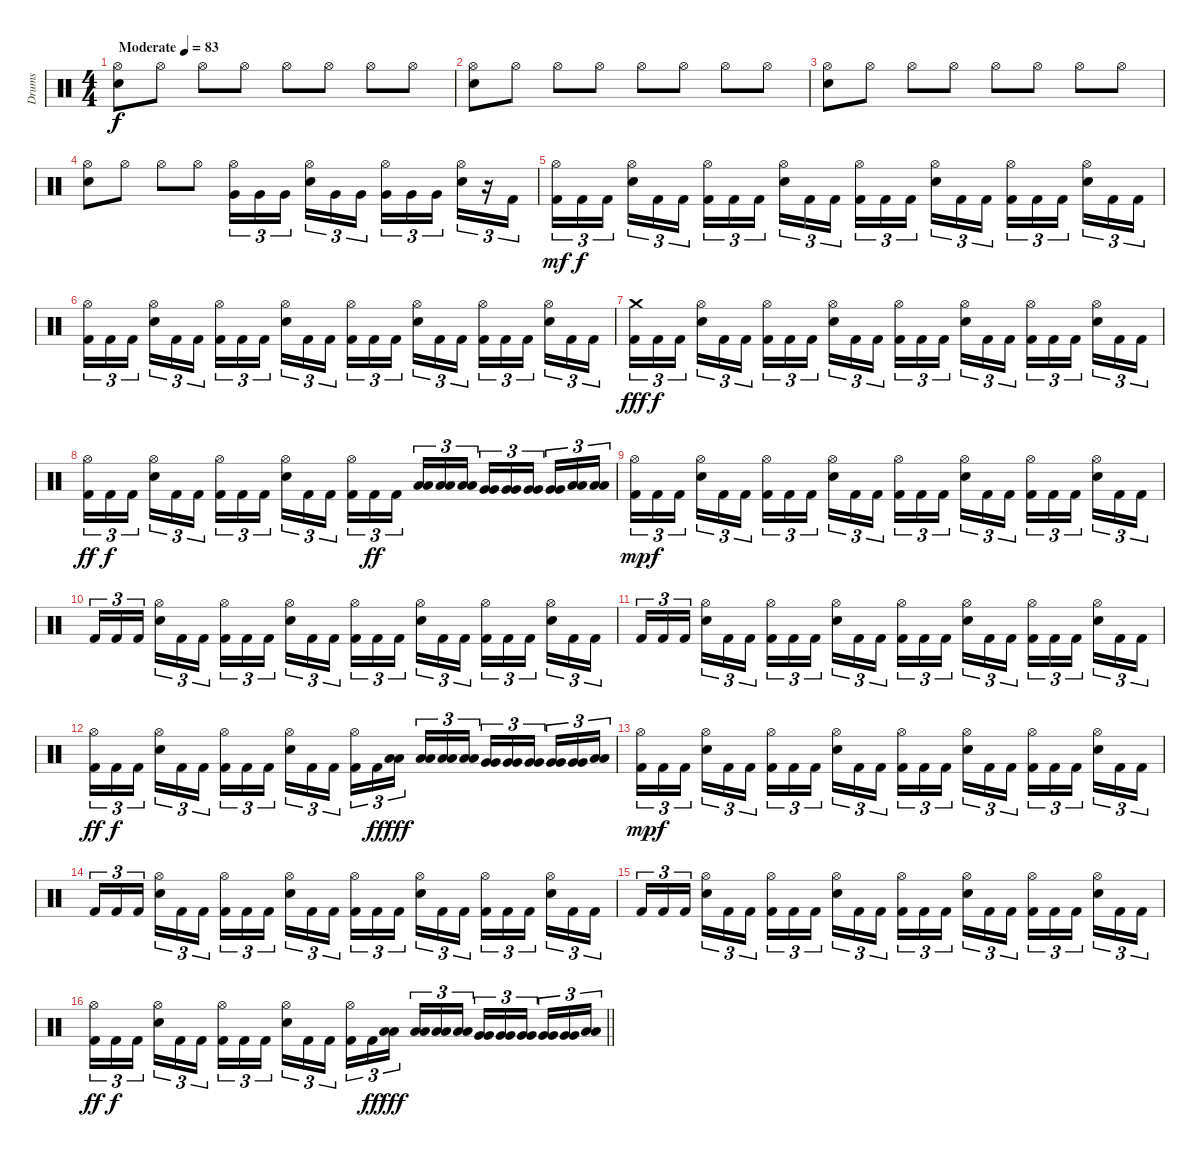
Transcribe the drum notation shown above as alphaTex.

\track ("Drums " "Drums ") {instrument percussion}
\staff {score}
\articulation defaults
\ts (4 4)
\tempo (83 "Moderate")
\clef neutral
\ks c
("Hi-Hat (open)" "Snare (hit) 2").8{dy f} "Hi-Hat (open)".8 "Hi-Hat (open)".8 "Hi-Hat (open)".8 "Hi-Hat (open)".8 "Hi-Hat (open)".8 "Hi-Hat (open)".8 "Hi-Hat (open)".8 |
("Hi-Hat (open)" "Snare (hit) 2").8 "Hi-Hat (open)".8 "Hi-Hat (open)".8 "Hi-Hat (open)".8 "Hi-Hat (open)".8 "Hi-Hat (open)".8 "Hi-Hat (open)".8 "Hi-Hat (open)".8 |
("Hi-Hat (open)" "Snare (hit) 2").8 "Hi-Hat (open)".8 "Hi-Hat (open)".8 "Hi-Hat (open)".8 "Hi-Hat (open)".8 "Hi-Hat (open)".8 "Hi-Hat (open)".8 "Hi-Hat (open)".8 |
("Hi-Hat (open)" "Snare (hit) 2").8 "Hi-Hat (open)".8 "Hi-Hat (open)".8 "Hi-Hat (open)".8 ("Hi-Hat (open)" "Very Low Tom (hit)").16{tu (3 2)} "Very Low Tom (hit)".16{tu (3 2)} "Very Low Tom (hit)".16{tu (3 2) beam splitsecondary} ("Hi-Hat (open)" "Snare (hit) 2").16{tu (3 2)} "Very Low Tom (hit)".16{tu (3 2)} "Very Low Tom (hit)".16{tu (3 2)} ("Hi-Hat (open)" "Very Low Tom (hit)").16{tu (3 2)} "Very Low Tom (hit)".16{tu (3 2)} "Very Low Tom (hit)".16{tu (3 2) beam splitsecondary} ("Hi-Hat (open)" "Snare (hit) 2").16{tu (3 2)} r.16{tu (3 2)} "Kick (hit) 2".16{tu (3 2)} |
("Hi-Hat (open)" "Kick (hit) 2").16{tu (3 2) dy mf} "Kick (hit) 2".16{tu (3 2) dy f} "Kick (hit) 2".16{tu (3 2) beam splitsecondary} ("Hi-Hat (open)" "Snare (hit) 2").16{tu (3 2)} "Kick (hit) 2".16{tu (3 2)} "Kick (hit) 2".16{tu (3 2)} ("Hi-Hat (open)" "Kick (hit) 2").16{tu (3 2)} "Kick (hit) 2".16{tu (3 2)} "Kick (hit) 2".16{tu (3 2) beam splitsecondary} ("Hi-Hat (open)" "Snare (hit) 2").16{tu (3 2)} "Kick (hit) 2".16{tu (3 2)} "Kick (hit) 2".16{tu (3 2)} ("Hi-Hat (open)" "Kick (hit) 2").16{tu (3 2)} "Kick (hit) 2".16{tu (3 2)} "Kick (hit) 2".16{tu (3 2) beam splitsecondary} ("Hi-Hat (open)" "Snare (hit) 2").16{tu (3 2)} "Kick (hit) 2".16{tu (3 2)} "Kick (hit) 2".16{tu (3 2)} ("Hi-Hat (open)" "Kick (hit) 2").16{tu (3 2)} "Kick (hit) 2".16{tu (3 2)} "Kick (hit) 2".16{tu (3 2) beam splitsecondary} ("Hi-Hat (open)" "Snare (hit) 2").16{tu (3 2)} "Kick (hit) 2".16{tu (3 2)} "Kick (hit) 2".16{tu (3 2)} |
("Hi-Hat (open)" "Kick (hit) 2").16{tu (3 2)} "Kick (hit) 2".16{tu (3 2)} "Kick (hit) 2".16{tu (3 2) beam splitsecondary} ("Hi-Hat (open)" "Snare (hit) 2").16{tu (3 2)} "Kick (hit) 2".16{tu (3 2)} "Kick (hit) 2".16{tu (3 2)} ("Hi-Hat (open)" "Kick (hit) 2").16{tu (3 2)} "Kick (hit) 2".16{tu (3 2)} "Kick (hit) 2".16{tu (3 2) beam splitsecondary} ("Hi-Hat (open)" "Snare (hit) 2").16{tu (3 2)} "Kick (hit) 2".16{tu (3 2)} "Kick (hit) 2".16{tu (3 2)} ("Hi-Hat (open)" "Kick (hit) 2").16{tu (3 2)} "Kick (hit) 2".16{tu (3 2)} "Kick (hit) 2".16{tu (3 2) beam splitsecondary} ("Hi-Hat (open)" "Snare (hit) 2").16{tu (3 2)} "Kick (hit) 2".16{tu (3 2)} "Kick (hit) 2".16{tu (3 2)} ("Hi-Hat (open)" "Kick (hit) 2").16{tu (3 2)} "Kick (hit) 2".16{tu (3 2)} "Kick (hit) 2".16{tu (3 2) beam splitsecondary} ("Hi-Hat (open)" "Snare (hit) 2").16{tu (3 2)} "Kick (hit) 2".16{tu (3 2)} "Kick (hit) 2".16{tu (3 2)} |
("Crash medium (hit)" "Kick (hit) 2").16{tu (3 2) dy fff} "Kick (hit) 2".16{tu (3 2) dy f} "Kick (hit) 2".16{tu (3 2) beam splitsecondary} ("Hi-Hat (open)" "Snare (hit) 2").16{tu (3 2)} "Kick (hit) 2".16{tu (3 2)} "Kick (hit) 2".16{tu (3 2)} ("Hi-Hat (open)" "Kick (hit) 2").16{tu (3 2)} "Kick (hit) 2".16{tu (3 2)} "Kick (hit) 2".16{tu (3 2) beam splitsecondary} ("Hi-Hat (open)" "Snare (hit) 2").16{tu (3 2)} "Kick (hit) 2".16{tu (3 2)} "Kick (hit) 2".16{tu (3 2)} ("Hi-Hat (open)" "Kick (hit) 2").16{tu (3 2)} "Kick (hit) 2".16{tu (3 2)} "Kick (hit) 2".16{tu (3 2) beam splitsecondary} ("Hi-Hat (open)" "Snare (hit) 2").16{tu (3 2)} "Kick (hit) 2".16{tu (3 2)} "Kick (hit) 2".16{tu (3 2)} ("Hi-Hat (open)" "Kick (hit) 2").16{tu (3 2)} "Kick (hit) 2".16{tu (3 2)} "Kick (hit) 2".16{tu (3 2) beam splitsecondary} ("Hi-Hat (open)" "Snare (hit) 2").16{tu (3 2)} "Kick (hit) 2".16{tu (3 2)} "Kick (hit) 2".16{tu (3 2)} |
("Hi-Hat (open)" "Kick (hit) 2").16{tu (3 2) dy ff} "Kick (hit) 2".16{tu (3 2) dy f} "Kick (hit) 2".16{tu (3 2) beam splitsecondary} ("Hi-Hat (open)" "Snare (hit) 2").16{tu (3 2)} "Kick (hit) 2".16{tu (3 2)} "Kick (hit) 2".16{tu (3 2)} ("Hi-Hat (open)" "Kick (hit) 2").16{tu (3 2)} "Kick (hit) 2".16{tu (3 2)} "Kick (hit) 2".16{tu (3 2) beam splitsecondary} ("Hi-Hat (open)" "Snare (hit) 2").16{tu (3 2)} "Kick (hit) 2".16{tu (3 2)} "Kick (hit) 2".16{tu (3 2)} ("Hi-Hat (open)" "Kick (hit) 2").16{tu (3 2)} "Kick (hit) 2".16{tu (3 2) dy ff} "Kick (hit) 2".16{tu (3 2) beam splitsecondary} ("Low Tom (hit)" "Low Tom (hit)").16{tu (3 2)} ("Low Tom (hit)" "Low Tom (hit)").16{tu (3 2)} ("Low Tom (hit)" "Low Tom (hit)").16{tu (3 2)} ("Very Low Tom (hit)" "Very Low Tom (hit)").16{tu (3 2)} ("Very Low Tom (hit)" "Very Low Tom (hit)").16{tu (3 2)} ("Very Low Tom (hit)" "Very Low Tom (hit)").16{tu (3 2) beam splitsecondary} ("Very Low Tom (hit)" "Very Low Tom (hit)").16{tu (3 2)} ("Low Floor Tom (hit)" "Low Floor Tom (hit)").16{tu (3 2)} ("Low Floor Tom (hit)" "Low Floor Tom (hit)").16{tu (3 2)} |
("Hi-Hat (open)" "Kick (hit) 2").16{tu (3 2) dy mp} "Kick (hit) 2".16{tu (3 2) dy f} "Kick (hit) 2".16{tu (3 2) beam splitsecondary} ("Hi-Hat (open)" "Snare (hit) 2").16{tu (3 2)} "Kick (hit) 2".16{tu (3 2)} "Kick (hit) 2".16{tu (3 2)} ("Hi-Hat (open)" "Kick (hit) 2").16{tu (3 2)} "Kick (hit) 2".16{tu (3 2)} "Kick (hit) 2".16{tu (3 2) beam splitsecondary} ("Hi-Hat (open)" "Snare (hit) 2").16{tu (3 2)} "Kick (hit) 2".16{tu (3 2)} "Kick (hit) 2".16{tu (3 2)} ("Hi-Hat (open)" "Kick (hit) 2").16{tu (3 2)} "Kick (hit) 2".16{tu (3 2)} "Kick (hit) 2".16{tu (3 2) beam splitsecondary} ("Hi-Hat (open)" "Snare (hit) 2").16{tu (3 2)} "Kick (hit) 2".16{tu (3 2)} "Kick (hit) 2".16{tu (3 2)} ("Hi-Hat (open)" "Kick (hit) 2").16{tu (3 2)} "Kick (hit) 2".16{tu (3 2)} "Kick (hit) 2".16{tu (3 2) beam splitsecondary} ("Hi-Hat (open)" "Snare (hit) 2").16{tu (3 2)} "Kick (hit) 2".16{tu (3 2)} "Kick (hit) 2".16{tu (3 2)} |
"Kick (hit) 2".16{tu (3 2)} "Kick (hit) 2".16{tu (3 2)} "Kick (hit) 2".16{tu (3 2) beam splitsecondary} ("Hi-Hat (open)" "Snare (hit) 2").16{tu (3 2)} "Kick (hit) 2".16{tu (3 2)} "Kick (hit) 2".16{tu (3 2)} ("Hi-Hat (open)" "Kick (hit) 2").16{tu (3 2)} "Kick (hit) 2".16{tu (3 2)} "Kick (hit) 2".16{tu (3 2) beam splitsecondary} ("Hi-Hat (open)" "Snare (hit) 2").16{tu (3 2)} "Kick (hit) 2".16{tu (3 2)} "Kick (hit) 2".16{tu (3 2)} ("Hi-Hat (open)" "Kick (hit) 2").16{tu (3 2)} "Kick (hit) 2".16{tu (3 2)} "Kick (hit) 2".16{tu (3 2) beam splitsecondary} ("Hi-Hat (open)" "Snare (hit) 2").16{tu (3 2)} "Kick (hit) 2".16{tu (3 2)} "Kick (hit) 2".16{tu (3 2)} ("Hi-Hat (open)" "Kick (hit) 2").16{tu (3 2)} "Kick (hit) 2".16{tu (3 2)} "Kick (hit) 2".16{tu (3 2) beam splitsecondary} ("Hi-Hat (open)" "Snare (hit) 2").16{tu (3 2)} "Kick (hit) 2".16{tu (3 2)} "Kick (hit) 2".16{tu (3 2)} |
"Kick (hit) 2".16{tu (3 2)} "Kick (hit) 2".16{tu (3 2)} "Kick (hit) 2".16{tu (3 2) beam splitsecondary} ("Hi-Hat (open)" "Snare (hit) 2").16{tu (3 2)} "Kick (hit) 2".16{tu (3 2)} "Kick (hit) 2".16{tu (3 2)} ("Hi-Hat (open)" "Kick (hit) 2").16{tu (3 2)} "Kick (hit) 2".16{tu (3 2)} "Kick (hit) 2".16{tu (3 2) beam splitsecondary} ("Hi-Hat (open)" "Snare (hit) 2").16{tu (3 2)} "Kick (hit) 2".16{tu (3 2)} "Kick (hit) 2".16{tu (3 2)} ("Hi-Hat (open)" "Kick (hit) 2").16{tu (3 2)} "Kick (hit) 2".16{tu (3 2)} "Kick (hit) 2".16{tu (3 2) beam splitsecondary} ("Hi-Hat (open)" "Snare (hit) 2").16{tu (3 2)} "Kick (hit) 2".16{tu (3 2)} "Kick (hit) 2".16{tu (3 2)} ("Hi-Hat (open)" "Kick (hit) 2").16{tu (3 2)} "Kick (hit) 2".16{tu (3 2)} "Kick (hit) 2".16{tu (3 2) beam splitsecondary} ("Hi-Hat (open)" "Snare (hit) 2").16{tu (3 2)} "Kick (hit) 2".16{tu (3 2)} "Kick (hit) 2".16{tu (3 2)} |
("Hi-Hat (open)" "Kick (hit) 2").16{tu (3 2) dy ff} "Kick (hit) 2".16{tu (3 2) dy f} "Kick (hit) 2".16{tu (3 2) beam splitsecondary} ("Hi-Hat (open)" "Snare (hit) 2").16{tu (3 2)} "Kick (hit) 2".16{tu (3 2)} "Kick (hit) 2".16{tu (3 2)} ("Hi-Hat (open)" "Kick (hit) 2").16{tu (3 2)} "Kick (hit) 2".16{tu (3 2)} "Kick (hit) 2".16{tu (3 2) beam splitsecondary} ("Hi-Hat (open)" "Snare (hit) 2").16{tu (3 2)} "Kick (hit) 2".16{tu (3 2)} "Kick (hit) 2".16{tu (3 2)} ("Hi-Hat (open)" "Kick (hit) 2").16{tu (3 2)} "Kick (hit) 2".16{tu (3 2) dy ff} ("Low Floor Tom (hit)" "Low Floor Tom (hit)").16{tu (3 2) dy fff beam splitsecondary} ("Low Tom (hit)" "Low Tom (hit)").16{tu (3 2)} ("Low Tom (hit)" "Low Tom (hit)").16{tu (3 2)} ("Low Tom (hit)" "Low Tom (hit)").16{tu (3 2)} ("Very Low Tom (hit)" "Very Low Tom (hit)").16{tu (3 2)} ("Very Low Tom (hit)" "Very Low Tom (hit)").16{tu (3 2)} ("Very Low Tom (hit)" "Very Low Tom (hit)").16{tu (3 2) beam splitsecondary} ("Very Low Tom (hit)" "Very Low Tom (hit)").16{tu (3 2)} ("Very Low Tom (hit)" "Very Low Tom (hit)").16{tu (3 2)} ("Low Floor Tom (hit)" "Low Floor Tom (hit)").16{tu (3 2)} |
("Hi-Hat (open)" "Kick (hit) 2").16{tu (3 2) dy mp} "Kick (hit) 2".16{tu (3 2) dy f} "Kick (hit) 2".16{tu (3 2) beam splitsecondary} ("Hi-Hat (open)" "Snare (hit) 2").16{tu (3 2)} "Kick (hit) 2".16{tu (3 2)} "Kick (hit) 2".16{tu (3 2)} ("Hi-Hat (open)" "Kick (hit) 2").16{tu (3 2)} "Kick (hit) 2".16{tu (3 2)} "Kick (hit) 2".16{tu (3 2) beam splitsecondary} ("Hi-Hat (open)" "Snare (hit) 2").16{tu (3 2)} "Kick (hit) 2".16{tu (3 2)} "Kick (hit) 2".16{tu (3 2)} ("Hi-Hat (open)" "Kick (hit) 2").16{tu (3 2)} "Kick (hit) 2".16{tu (3 2)} "Kick (hit) 2".16{tu (3 2) beam splitsecondary} ("Hi-Hat (open)" "Snare (hit) 2").16{tu (3 2)} "Kick (hit) 2".16{tu (3 2)} "Kick (hit) 2".16{tu (3 2)} ("Hi-Hat (open)" "Kick (hit) 2").16{tu (3 2)} "Kick (hit) 2".16{tu (3 2)} "Kick (hit) 2".16{tu (3 2) beam splitsecondary} ("Hi-Hat (open)" "Snare (hit) 2").16{tu (3 2)} "Kick (hit) 2".16{tu (3 2)} "Kick (hit) 2".16{tu (3 2)} |
"Kick (hit) 2".16{tu (3 2)} "Kick (hit) 2".16{tu (3 2)} "Kick (hit) 2".16{tu (3 2) beam splitsecondary} ("Hi-Hat (open)" "Snare (hit) 2").16{tu (3 2)} "Kick (hit) 2".16{tu (3 2)} "Kick (hit) 2".16{tu (3 2)} ("Hi-Hat (open)" "Kick (hit) 2").16{tu (3 2)} "Kick (hit) 2".16{tu (3 2)} "Kick (hit) 2".16{tu (3 2) beam splitsecondary} ("Hi-Hat (open)" "Snare (hit) 2").16{tu (3 2)} "Kick (hit) 2".16{tu (3 2)} "Kick (hit) 2".16{tu (3 2)} ("Hi-Hat (open)" "Kick (hit) 2").16{tu (3 2)} "Kick (hit) 2".16{tu (3 2)} "Kick (hit) 2".16{tu (3 2) beam splitsecondary} ("Hi-Hat (open)" "Snare (hit) 2").16{tu (3 2)} "Kick (hit) 2".16{tu (3 2)} "Kick (hit) 2".16{tu (3 2)} ("Hi-Hat (open)" "Kick (hit) 2").16{tu (3 2)} "Kick (hit) 2".16{tu (3 2)} "Kick (hit) 2".16{tu (3 2) beam splitsecondary} ("Hi-Hat (open)" "Snare (hit) 2").16{tu (3 2)} "Kick (hit) 2".16{tu (3 2)} "Kick (hit) 2".16{tu (3 2)} |
"Kick (hit) 2".16{tu (3 2)} "Kick (hit) 2".16{tu (3 2)} "Kick (hit) 2".16{tu (3 2) beam splitsecondary} ("Hi-Hat (open)" "Snare (hit) 2").16{tu (3 2)} "Kick (hit) 2".16{tu (3 2)} "Kick (hit) 2".16{tu (3 2)} ("Hi-Hat (open)" "Kick (hit) 2").16{tu (3 2)} "Kick (hit) 2".16{tu (3 2)} "Kick (hit) 2".16{tu (3 2) beam splitsecondary} ("Hi-Hat (open)" "Snare (hit) 2").16{tu (3 2)} "Kick (hit) 2".16{tu (3 2)} "Kick (hit) 2".16{tu (3 2)} ("Hi-Hat (open)" "Kick (hit) 2").16{tu (3 2)} "Kick (hit) 2".16{tu (3 2)} "Kick (hit) 2".16{tu (3 2) beam splitsecondary} ("Hi-Hat (open)" "Snare (hit) 2").16{tu (3 2)} "Kick (hit) 2".16{tu (3 2)} "Kick (hit) 2".16{tu (3 2)} ("Hi-Hat (open)" "Kick (hit) 2").16{tu (3 2)} "Kick (hit) 2".16{tu (3 2)} "Kick (hit) 2".16{tu (3 2) beam splitsecondary} ("Hi-Hat (open)" "Snare (hit) 2").16{tu (3 2)} "Kick (hit) 2".16{tu (3 2)} "Kick (hit) 2".16{tu (3 2)} |
\barLineRight lightlight
("Hi-Hat (open)" "Kick (hit) 2").16{tu (3 2) dy ff} "Kick (hit) 2".16{tu (3 2) dy f} "Kick (hit) 2".16{tu (3 2) beam splitsecondary} ("Hi-Hat (open)" "Snare (hit) 2").16{tu (3 2)} "Kick (hit) 2".16{tu (3 2)} "Kick (hit) 2".16{tu (3 2)} ("Hi-Hat (open)" "Kick (hit) 2").16{tu (3 2)} "Kick (hit) 2".16{tu (3 2)} "Kick (hit) 2".16{tu (3 2) beam splitsecondary} ("Hi-Hat (open)" "Snare (hit) 2").16{tu (3 2)} "Kick (hit) 2".16{tu (3 2)} "Kick (hit) 2".16{tu (3 2)} ("Hi-Hat (open)" "Kick (hit) 2").16{tu (3 2)} "Kick (hit) 2".16{tu (3 2) dy ff} ("Low Floor Tom (hit)" "Low Floor Tom (hit)").16{tu (3 2) dy fff beam splitsecondary} ("Low Tom (hit)" "Low Tom (hit)").16{tu (3 2)} ("Low Tom (hit)" "Low Tom (hit)").16{tu (3 2)} ("Low Tom (hit)" "Low Tom (hit)").16{tu (3 2)} ("Very Low Tom (hit)" "Very Low Tom (hit)").16{tu (3 2)} ("Very Low Tom (hit)" "Very Low Tom (hit)").16{tu (3 2)} ("Very Low Tom (hit)" "Very Low Tom (hit)").16{tu (3 2) beam splitsecondary} ("Very Low Tom (hit)" "Very Low Tom (hit)").16{tu (3 2)} ("Very Low Tom (hit)" "Very Low Tom (hit)").16{tu (3 2)} ("Low Floor Tom (hit)" "Low Floor Tom (hit)").16{tu (3 2)}
